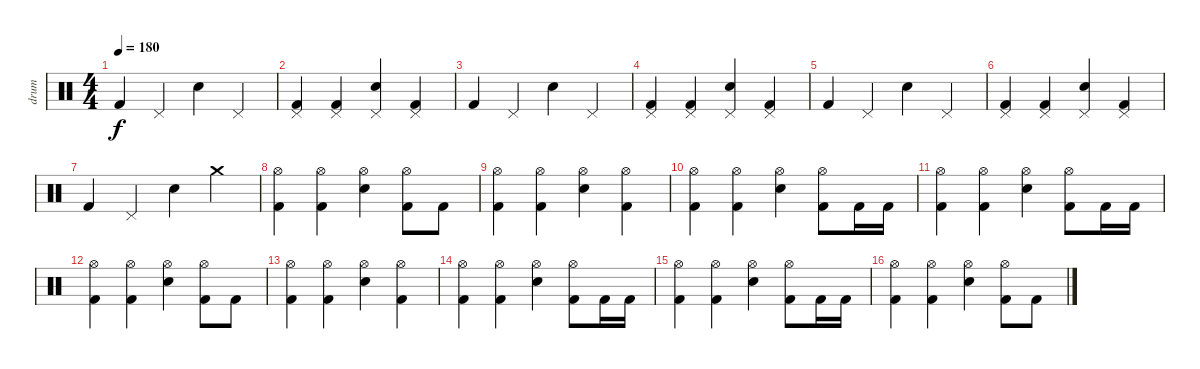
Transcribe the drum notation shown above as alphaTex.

\track ("drum" "drum") {instrument percussion}
\staff {score}
\articulation defaults
\ts (4 4)
\tempo 180
\clef neutral
\ks c "Kick (hit) 2".4{dy f} "Pedal Hi-Hat (hit)".4 "Electric Snare (hit)".4 "Pedal Hi-Hat (hit)".4
|
("Pedal Hi-Hat (hit)" "Kick (hit) 2").4 ("Pedal Hi-Hat (hit)" "Kick (hit) 2").4 ("Pedal Hi-Hat (hit)" "Electric Snare (hit)").4 ("Pedal Hi-Hat (hit)" "Kick (hit) 2").4 |
"Kick (hit) 2".4 "Pedal Hi-Hat (hit)".4 "Electric Snare (hit)".4 "Pedal Hi-Hat (hit)".4 |
("Pedal Hi-Hat (hit)" "Kick (hit) 2").4 ("Pedal Hi-Hat (hit)" "Kick (hit) 2").4 ("Pedal Hi-Hat (hit)" "Electric Snare (hit)").4 ("Pedal Hi-Hat (hit)" "Kick (hit) 2").4 |
"Kick (hit) 2".4 "Pedal Hi-Hat (hit)".4 "Electric Snare (hit)".4 "Pedal Hi-Hat (hit)".4 |
("Pedal Hi-Hat (hit)" "Kick (hit) 2").4 ("Pedal Hi-Hat (hit)" "Kick (hit) 2").4 ("Pedal Hi-Hat (hit)" "Electric Snare (hit)").4 ("Pedal Hi-Hat (hit)" "Kick (hit) 2").4 |
"Kick (hit) 2".4 "Pedal Hi-Hat (hit)".4 "Electric Snare (hit)".4 "Crash medium (hit)".4 |
("Hi-Hat (open)" "Kick (hit) 2").4 ("Hi-Hat (open)" "Kick (hit) 2").4 ("Hi-Hat (open)" "Electric Snare (hit)").4 ("Hi-Hat (open)" "Kick (hit) 2").8 "Kick (hit) 2".8 |
("Hi-Hat (open)" "Kick (hit) 2").4 ("Hi-Hat (open)" "Kick (hit) 2").4 ("Hi-Hat (open)" "Electric Snare (hit)").4 ("Hi-Hat (open)" "Kick (hit) 2").4 |
("Hi-Hat (open)" "Kick (hit) 2").4 ("Hi-Hat (open)" "Kick (hit) 2").4 ("Hi-Hat (open)" "Electric Snare (hit)").4 ("Hi-Hat (open)" "Kick (hit) 2").8 "Kick (hit) 2".16 "Kick (hit) 2".16 |
("Hi-Hat (open)" "Kick (hit) 2").4 ("Hi-Hat (open)" "Kick (hit) 2").4 ("Hi-Hat (open)" "Electric Snare (hit)").4 ("Hi-Hat (open)" "Kick (hit) 2").8 "Kick (hit) 2".16 "Kick (hit) 2".16 |
("Hi-Hat (open)" "Kick (hit) 2").4 ("Hi-Hat (open)" "Kick (hit) 2").4 ("Hi-Hat (open)" "Electric Snare (hit)").4 ("Hi-Hat (open)" "Kick (hit) 2").8 "Kick (hit) 2".8 |
("Hi-Hat (open)" "Kick (hit) 2").4 ("Hi-Hat (open)" "Kick (hit) 2").4 ("Hi-Hat (open)" "Electric Snare (hit)").4 ("Hi-Hat (open)" "Kick (hit) 2").4 |
("Hi-Hat (open)" "Kick (hit) 2").4 ("Hi-Hat (open)" "Kick (hit) 2").4 ("Hi-Hat (open)" "Electric Snare (hit)").4 ("Hi-Hat (open)" "Kick (hit) 2").8 "Kick (hit) 2".16 "Kick (hit) 2".16 |
("Hi-Hat (open)" "Kick (hit) 2").4 ("Hi-Hat (open)" "Kick (hit) 2").4 ("Hi-Hat (open)" "Electric Snare (hit)").4 ("Hi-Hat (open)" "Kick (hit) 2").8 "Kick (hit) 2".16 "Kick (hit) 2".16 |
("Hi-Hat (open)" "Kick (hit) 2").4 ("Hi-Hat (open)" "Kick (hit) 2").4 ("Hi-Hat (open)" "Electric Snare (hit)").4 ("Hi-Hat (open)" "Kick (hit) 2").8 "Kick (hit) 2".8
